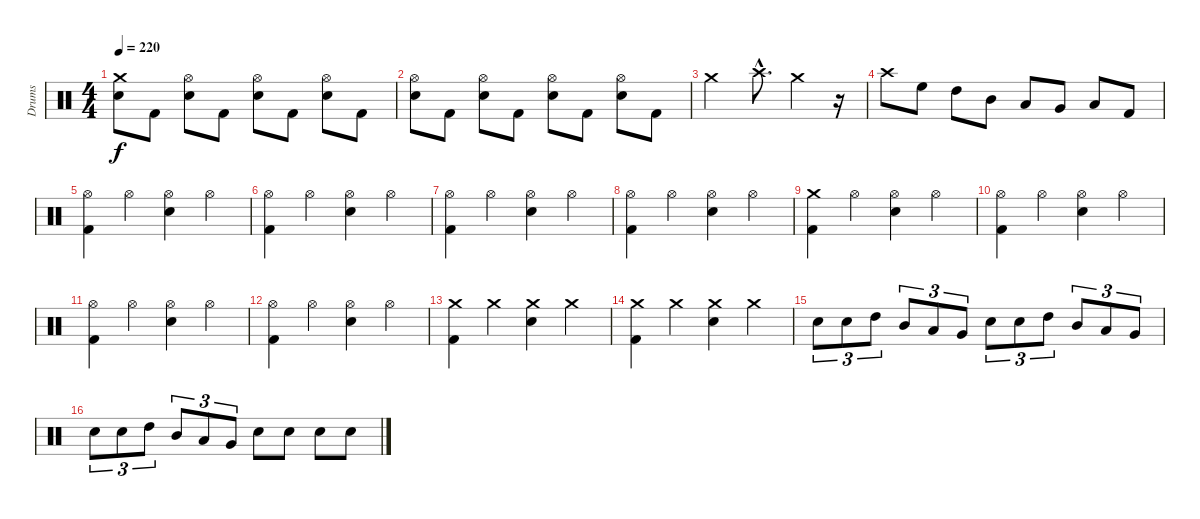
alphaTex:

\track ("Drums" "Drums") {instrument percussion}
\staff {score}
\articulation defaults
\ts (4 4)
\tempo 220
\clef neutral
\ks c
("Electric Snare (hit)" "Crash medium (hit)").8{dy f} "Kick (hit) 2".8 ("Electric Snare (hit)" "Hi-Hat (open)").8 "Kick (hit) 2".8 ("Electric Snare (hit)" "Hi-Hat (open)").8 "Kick (hit) 2".8 ("Electric Snare (hit)" "Hi-Hat (open)").8 "Kick (hit) 2".8 |
("Electric Snare (hit)" "Hi-Hat (open)").8 "Kick (hit) 2".8 ("Electric Snare (hit)" "Hi-Hat (open)").8 "Kick (hit) 2".8 ("Electric Snare (hit)" "Hi-Hat (open)").8 "Kick (hit) 2".8 ("Electric Snare (hit)" "Hi-Hat (open)").8 "Kick (hit) 2".8 |
"Crash medium (hit)".2 "Crash high (hit)"{hac}.8{d} "Crash medium (hit)".4 r.16 |
"Crash high (hit)".8 "High Floor Tom (hit)".8 "High Tom (hit)".8 "Mid Tom (hit)".8 "Low Tom (hit)".8 "Very Low Tom (hit)".8 "Low Floor Tom (hit)".8 "Kick (hit) 2".8 |
("Kick (hit) 2" "Hi-Hat (open)").4 "Hi-Hat (open)".4 ("Electric Snare (hit)" "Hi-Hat (open)").4 "Hi-Hat (open)".4 |
("Kick (hit) 2" "Hi-Hat (open)").4 "Hi-Hat (open)".4 ("Electric Snare (hit)" "Hi-Hat (open)").4 "Hi-Hat (open)".4 |
("Kick (hit) 2" "Hi-Hat (open)").4 "Hi-Hat (open)".4 ("Electric Snare (hit)" "Hi-Hat (open)").4 "Hi-Hat (open)".4 |
("Kick (hit) 2" "Hi-Hat (open)").4 "Hi-Hat (open)".4 ("Electric Snare (hit)" "Hi-Hat (open)").4 "Hi-Hat (open)".4 |
("Kick (hit) 2" "Crash medium (hit)").4 "Hi-Hat (open)".4 ("Electric Snare (hit)" "Hi-Hat (open)").4 "Hi-Hat (open)".4 |
("Kick (hit) 2" "Hi-Hat (open)").4 "Hi-Hat (open)".4 ("Electric Snare (hit)" "Hi-Hat (open)").4 "Hi-Hat (open)".4 |
("Kick (hit) 2" "Hi-Hat (open)").4 "Hi-Hat (open)".4 ("Electric Snare (hit)" "Hi-Hat (open)").4 "Hi-Hat (open)".4 |
("Kick (hit) 2" "Hi-Hat (open)").4 "Hi-Hat (open)".4 ("Electric Snare (hit)" "Hi-Hat (open)").4 "Hi-Hat (open)".4 |
("Kick (hit) 2" "Crash medium (hit)").4 "Crash medium (hit)".4 ("Electric Snare (hit)" "Crash medium (hit)").4 "Crash medium (hit)".4 |
("Kick (hit) 2" "Crash medium (hit)").4 "Crash medium (hit)".4 ("Electric Snare (hit)" "Crash medium (hit)").4 "Crash medium (hit)".4 |
"Electric Snare (hit)".8{tu (3 2)} "Electric Snare (hit)".8{tu (3 2)} "High Tom (hit)".8{tu (3 2)} "Mid Tom (hit)".8{tu (3 2)} "Low Tom (hit)".8{tu (3 2)} "Very Low Tom (hit)".8{tu (3 2)} "Electric Snare (hit)".8{tu (3 2)} "Electric Snare (hit)".8{tu (3 2)} "High Tom (hit)".8{tu (3 2)} "Mid Tom (hit)".8{tu (3 2)} "Low Tom (hit)".8{tu (3 2)} "Very Low Tom (hit)".8{tu (3 2)} |
"Electric Snare (hit)".8{tu (3 2)} "Electric Snare (hit)".8{tu (3 2)} "High Tom (hit)".8{tu (3 2)} "Mid Tom (hit)".8{tu (3 2)} "Low Tom (hit)".8{tu (3 2)} "Very Low Tom (hit)".8{tu (3 2)} "Electric Snare (hit)".8 "Electric Snare (hit)".8 "Electric Snare (hit)".8 "Electric Snare (hit)".8
